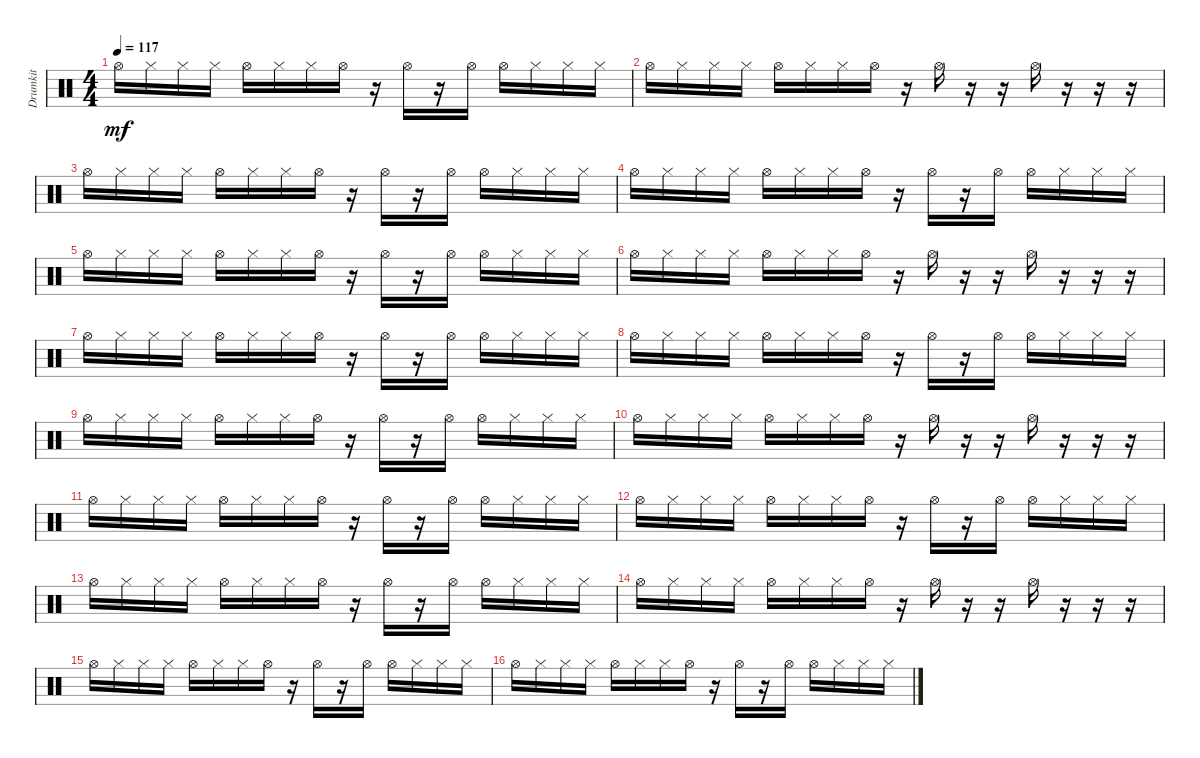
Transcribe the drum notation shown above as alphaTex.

\track ("Drumkit" "Drumkit") {instrument percussion}
\staff {score}
\articulation defaults
\ts (4 4)
\tempo 117
\clef neutral
\ks c "Hi-Hat (open)".16{dy mf} "Hi-Hat (closed)".16 "Hi-Hat (closed)".16 "Hi-Hat (closed)".16 "Hi-Hat (open)".16 "Hi-Hat (closed)".16 "Hi-Hat (closed)".16 "Hi-Hat (open)".16
r.16 "Hi-Hat (open)".16 r.16 "Hi-Hat (open)".16 "Hi-Hat (open)".16 "Hi-Hat (closed)".16 "Hi-Hat (closed)".16 "Hi-Hat (closed)".16 |
"Hi-Hat (open)".16 "Hi-Hat (closed)".16 "Hi-Hat (closed)".16 "Hi-Hat (closed)".16 "Hi-Hat (open)".16 "Hi-Hat (closed)".16 "Hi-Hat (closed)".16 "Hi-Hat (open)".16 r.16 "Hi-Hat (open)".16 r.16 r.16 "Hi-Hat (open)".16 r.16 r.16 r.16 |
"Hi-Hat (open)".16 "Hi-Hat (closed)".16 "Hi-Hat (closed)".16 "Hi-Hat (closed)".16 "Hi-Hat (open)".16 "Hi-Hat (closed)".16 "Hi-Hat (closed)".16 "Hi-Hat (open)".16 r.16 "Hi-Hat (open)".16 r.16 "Hi-Hat (open)".16 "Hi-Hat (open)".16 "Hi-Hat (closed)".16 "Hi-Hat (closed)".16 "Hi-Hat (closed)".16 |
"Hi-Hat (open)".16 "Hi-Hat (closed)".16 "Hi-Hat (closed)".16 "Hi-Hat (closed)".16 "Hi-Hat (open)".16 "Hi-Hat (closed)".16 "Hi-Hat (closed)".16 "Hi-Hat (open)".16 r.16 "Hi-Hat (open)".16 r.16 "Hi-Hat (open)".16 "Hi-Hat (open)".16 "Hi-Hat (closed)".16 "Hi-Hat (closed)".16 "Hi-Hat (closed)".16 |
"Hi-Hat (open)".16 "Hi-Hat (closed)".16 "Hi-Hat (closed)".16 "Hi-Hat (closed)".16 "Hi-Hat (open)".16 "Hi-Hat (closed)".16 "Hi-Hat (closed)".16 "Hi-Hat (open)".16 r.16 "Hi-Hat (open)".16 r.16 "Hi-Hat (open)".16 "Hi-Hat (open)".16 "Hi-Hat (closed)".16 "Hi-Hat (closed)".16 "Hi-Hat (closed)".16 |
"Hi-Hat (open)".16 "Hi-Hat (closed)".16 "Hi-Hat (closed)".16 "Hi-Hat (closed)".16 "Hi-Hat (open)".16 "Hi-Hat (closed)".16 "Hi-Hat (closed)".16 "Hi-Hat (open)".16 r.16 "Hi-Hat (open)".16 r.16 r.16 "Hi-Hat (open)".16 r.16 r.16 r.16 |
"Hi-Hat (open)".16 "Hi-Hat (closed)".16 "Hi-Hat (closed)".16 "Hi-Hat (closed)".16 "Hi-Hat (open)".16 "Hi-Hat (closed)".16 "Hi-Hat (closed)".16 "Hi-Hat (open)".16 r.16 "Hi-Hat (open)".16 r.16 "Hi-Hat (open)".16 "Hi-Hat (open)".16 "Hi-Hat (closed)".16 "Hi-Hat (closed)".16 "Hi-Hat (closed)".16 |
"Hi-Hat (open)".16 "Hi-Hat (closed)".16 "Hi-Hat (closed)".16 "Hi-Hat (closed)".16 "Hi-Hat (open)".16 "Hi-Hat (closed)".16 "Hi-Hat (closed)".16 "Hi-Hat (open)".16 r.16 "Hi-Hat (open)".16 r.16 "Hi-Hat (open)".16 "Hi-Hat (open)".16 "Hi-Hat (closed)".16 "Hi-Hat (closed)".16 "Hi-Hat (closed)".16 |
"Hi-Hat (open)".16 "Hi-Hat (closed)".16 "Hi-Hat (closed)".16 "Hi-Hat (closed)".16 "Hi-Hat (open)".16 "Hi-Hat (closed)".16 "Hi-Hat (closed)".16 "Hi-Hat (open)".16 r.16 "Hi-Hat (open)".16 r.16 "Hi-Hat (open)".16 "Hi-Hat (open)".16 "Hi-Hat (closed)".16 "Hi-Hat (closed)".16 "Hi-Hat (closed)".16 |
"Hi-Hat (open)".16 "Hi-Hat (closed)".16 "Hi-Hat (closed)".16 "Hi-Hat (closed)".16 "Hi-Hat (open)".16 "Hi-Hat (closed)".16 "Hi-Hat (closed)".16 "Hi-Hat (open)".16 r.16 "Hi-Hat (open)".16 r.16 r.16 "Hi-Hat (open)".16 r.16 r.16 r.16 |
"Hi-Hat (open)".16 "Hi-Hat (closed)".16 "Hi-Hat (closed)".16 "Hi-Hat (closed)".16 "Hi-Hat (open)".16 "Hi-Hat (closed)".16 "Hi-Hat (closed)".16 "Hi-Hat (open)".16 r.16 "Hi-Hat (open)".16 r.16 "Hi-Hat (open)".16 "Hi-Hat (open)".16 "Hi-Hat (closed)".16 "Hi-Hat (closed)".16 "Hi-Hat (closed)".16 |
"Hi-Hat (open)".16 "Hi-Hat (closed)".16 "Hi-Hat (closed)".16 "Hi-Hat (closed)".16 "Hi-Hat (open)".16 "Hi-Hat (closed)".16 "Hi-Hat (closed)".16 "Hi-Hat (open)".16 r.16 "Hi-Hat (open)".16 r.16 "Hi-Hat (open)".16 "Hi-Hat (open)".16 "Hi-Hat (closed)".16 "Hi-Hat (closed)".16 "Hi-Hat (closed)".16 |
"Hi-Hat (open)".16 "Hi-Hat (closed)".16 "Hi-Hat (closed)".16 "Hi-Hat (closed)".16 "Hi-Hat (open)".16 "Hi-Hat (closed)".16 "Hi-Hat (closed)".16 "Hi-Hat (open)".16 r.16 "Hi-Hat (open)".16 r.16 "Hi-Hat (open)".16 "Hi-Hat (open)".16 "Hi-Hat (closed)".16 "Hi-Hat (closed)".16 "Hi-Hat (closed)".16 |
"Hi-Hat (open)".16 "Hi-Hat (closed)".16 "Hi-Hat (closed)".16 "Hi-Hat (closed)".16 "Hi-Hat (open)".16 "Hi-Hat (closed)".16 "Hi-Hat (closed)".16 "Hi-Hat (open)".16 r.16 "Hi-Hat (open)".16 r.16 r.16 "Hi-Hat (open)".16 r.16 r.16 r.16 |
"Hi-Hat (open)".16 "Hi-Hat (closed)".16 "Hi-Hat (closed)".16 "Hi-Hat (closed)".16 "Hi-Hat (open)".16 "Hi-Hat (closed)".16 "Hi-Hat (closed)".16 "Hi-Hat (open)".16 r.16 "Hi-Hat (open)".16 r.16 "Hi-Hat (open)".16 "Hi-Hat (open)".16 "Hi-Hat (closed)".16 "Hi-Hat (closed)".16 "Hi-Hat (closed)".16 |
"Hi-Hat (open)".16 "Hi-Hat (closed)".16 "Hi-Hat (closed)".16 "Hi-Hat (closed)".16 "Hi-Hat (open)".16 "Hi-Hat (closed)".16 "Hi-Hat (closed)".16 "Hi-Hat (open)".16 r.16 "Hi-Hat (open)".16 r.16 "Hi-Hat (open)".16 "Hi-Hat (open)".16 "Hi-Hat (closed)".16 "Hi-Hat (closed)".16 "Hi-Hat (closed)".16
